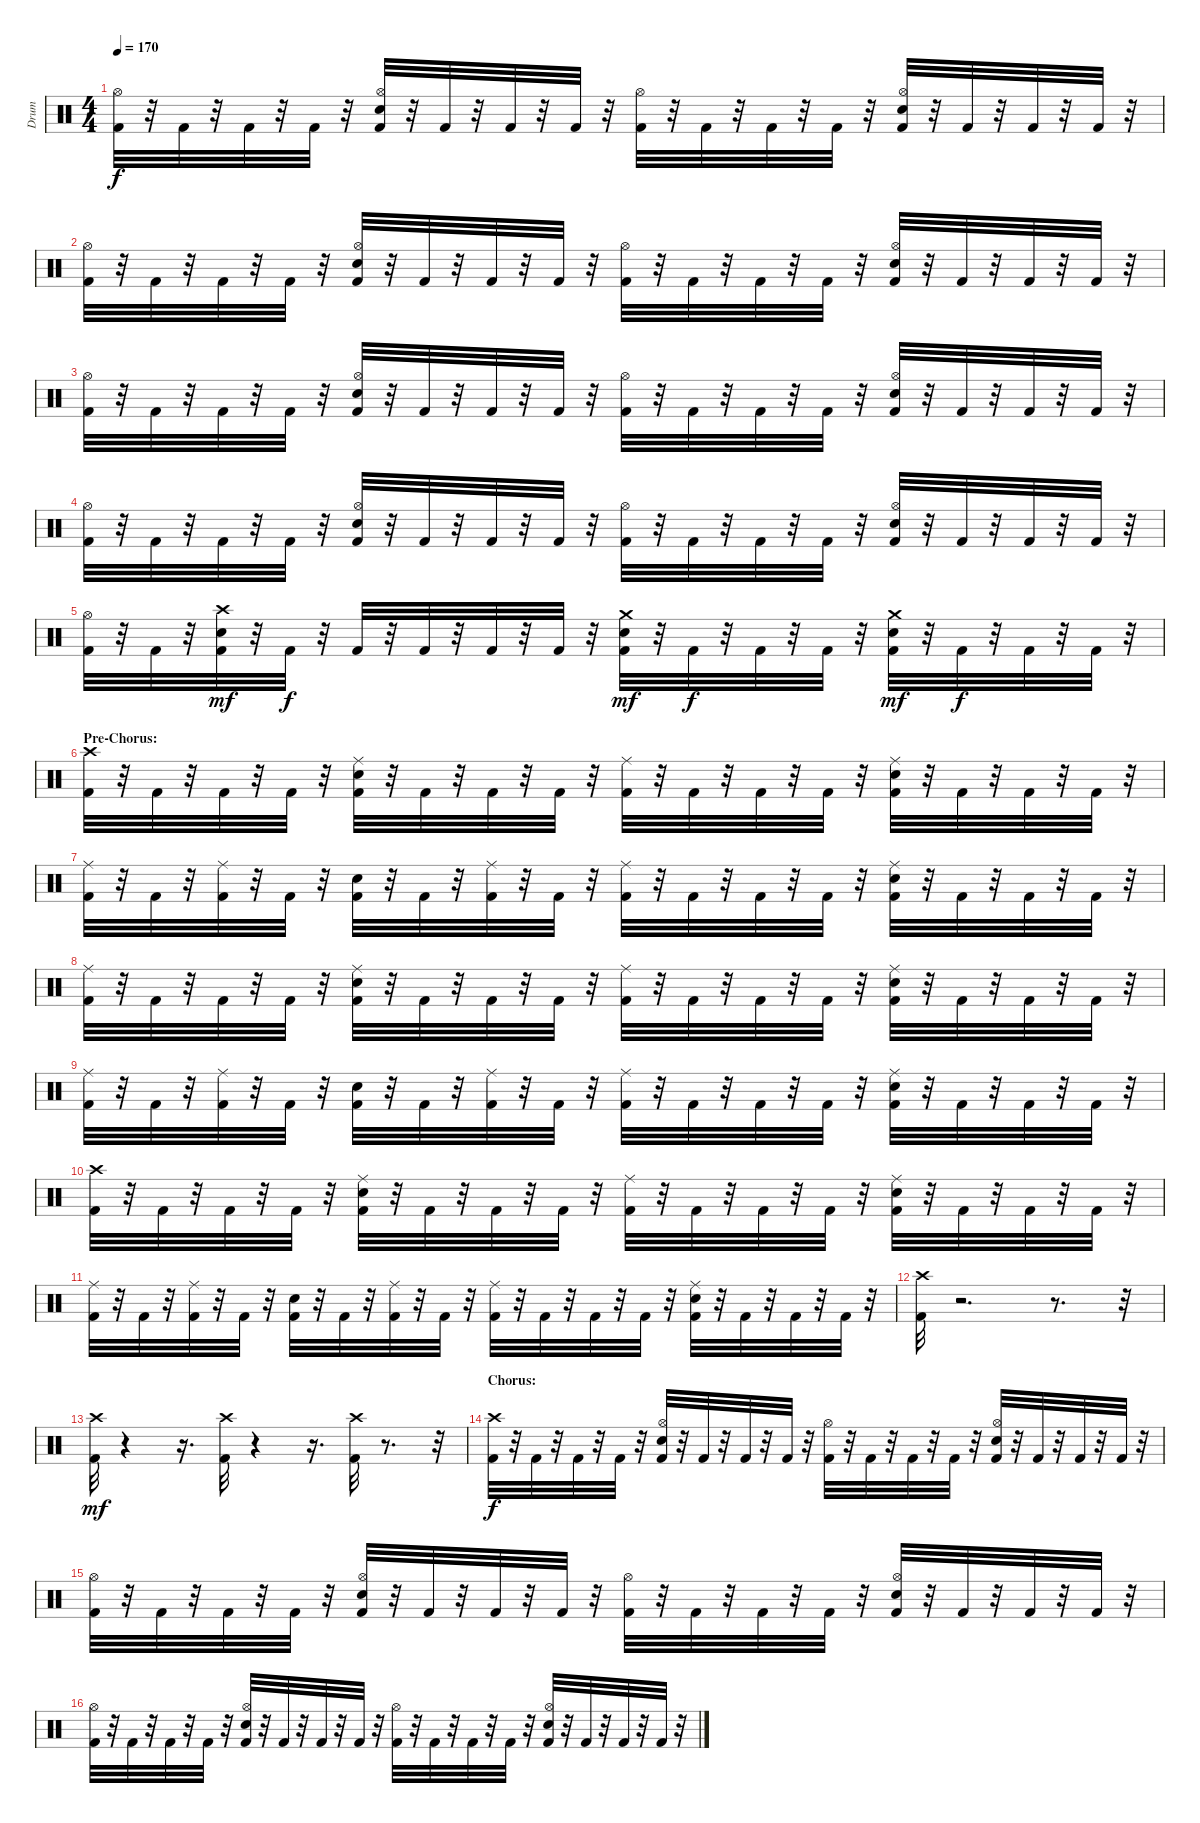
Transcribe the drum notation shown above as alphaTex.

\track ("Drum" "Drum") {instrument percussion}
\staff {score}
\articulation defaults
\ts (4 4)
\tempo 170
\clef neutral
\ks c
("Kick (hit) 2" "Hi-Hat (open)").32{dy f} r.32 "Kick (hit) 2".32 r.32 "Kick (hit) 2".32 r.32 "Kick (hit) 2".32 r.32 ("Kick (hit) 2" "Snare (hit) 2" "Hi-Hat (open)").32 r.32 "Kick (hit) 2".32 r.32 "Kick (hit) 2".32 r.32 "Kick (hit) 2".32 r.32 ("Kick (hit) 2" "Hi-Hat (open)").32 r.32 "Kick (hit) 2".32 r.32 "Kick (hit) 2".32 r.32 "Kick (hit) 2".32 r.32 ("Kick (hit) 2" "Hi-Hat (open)" "Snare (hit) 2").32 r.32 "Kick (hit) 2".32 r.32 "Kick (hit) 2".32 r.32 "Kick (hit) 2".32 r.32 |
("Kick (hit) 2" "Hi-Hat (open)").32 r.32 "Kick (hit) 2".32 r.32 "Kick (hit) 2".32 r.32 "Kick (hit) 2".32 r.32 ("Kick (hit) 2" "Snare (hit) 2" "Hi-Hat (open)").32 r.32 "Kick (hit) 2".32 r.32 "Kick (hit) 2".32 r.32 "Kick (hit) 2".32 r.32 ("Kick (hit) 2" "Hi-Hat (open)").32 r.32 "Kick (hit) 2".32 r.32 "Kick (hit) 2".32 r.32 "Kick (hit) 2".32 r.32 ("Kick (hit) 2" "Snare (hit) 2" "Hi-Hat (open)").32 r.32 "Kick (hit) 2".32 r.32 "Kick (hit) 2".32 r.32 "Kick (hit) 2".32 r.32 |
("Kick (hit) 2" "Hi-Hat (open)").32 r.32 "Kick (hit) 2".32 r.32 "Kick (hit) 2".32 r.32 "Kick (hit) 2".32 r.32 ("Kick (hit) 2" "Snare (hit) 2" "Hi-Hat (open)").32 r.32 "Kick (hit) 2".32 r.32 "Kick (hit) 2".32 r.32 "Kick (hit) 2".32 r.32 ("Kick (hit) 2" "Hi-Hat (open)").32 r.32 "Kick (hit) 2".32 r.32 "Kick (hit) 2".32 r.32 "Kick (hit) 2".32 r.32 ("Kick (hit) 2" "Hi-Hat (open)" "Snare (hit) 2").32 r.32 "Kick (hit) 2".32 r.32 "Kick (hit) 2".32 r.32 "Kick (hit) 2".32 r.32 |
("Kick (hit) 2" "Hi-Hat (open)").32 r.32 "Kick (hit) 2".32 r.32 "Kick (hit) 2".32 r.32 "Kick (hit) 2".32 r.32 ("Kick (hit) 2" "Snare (hit) 2" "Hi-Hat (open)").32 r.32 "Kick (hit) 2".32 r.32 "Kick (hit) 2".32 r.32 "Kick (hit) 2".32 r.32 ("Kick (hit) 2" "Hi-Hat (open)").32 r.32 "Kick (hit) 2".32 r.32 "Kick (hit) 2".32 r.32 "Kick (hit) 2".32 r.32 ("Kick (hit) 2" "Snare (hit) 2" "Hi-Hat (open)").32 r.32 "Kick (hit) 2".32 r.32 "Kick (hit) 2".32 r.32 "Kick (hit) 2".32 r.32 |
("Kick (hit) 2" "Hi-Hat (open)").32 r.32 "Kick (hit) 2".32 r.32 ("Crash high (hit)" "Snare (hit) 2" "Kick (hit) 2").32{dy mf} r.32 "Kick (hit) 2".32{dy f} r.32 "Kick (hit) 2".32 r.32 "Kick (hit) 2".32 r.32 "Kick (hit) 2".32 r.32 "Kick (hit) 2".32 r.32 ("Crash medium (hit)" "Snare (hit) 2" "Kick (hit) 2").32{dy mf} r.32 "Kick (hit) 2".32{dy f} r.32 "Kick (hit) 2".32 r.32 "Kick (hit) 2".32 r.32 ("Crash medium (hit)" "Snare (hit) 2" "Kick (hit) 2").32{dy mf} r.32 "Kick (hit) 2".32{dy f} r.32 "Kick (hit) 2".32 r.32 "Kick (hit) 2".32 r.32 |
\section ("" "Pre-Chorus:")
("Crash high (hit)" "Kick (hit) 2").32 r.32 "Kick (hit) 2".32 r.32 "Kick (hit) 2".32 r.32 "Kick (hit) 2".32 r.32 ("Kick (hit) 2" "Snare (hit) 2" "Ride (middle)").32 r.32 "Kick (hit) 2".32 r.32 "Kick (hit) 2".32 r.32 "Kick (hit) 2".32 r.32 ("Kick (hit) 2" "Ride (middle)").32 r.32 "Kick (hit) 2".32 r.32 "Kick (hit) 2".32 r.32 "Kick (hit) 2".32 r.32 ("Kick (hit) 2" "Snare (hit) 2" "Ride (middle)").32 r.32 "Kick (hit) 2".32 r.32 "Kick (hit) 2".32 r.32 "Kick (hit) 2".32 r.32 |
("Kick (hit) 2" "Ride (middle)").32 r.32 "Kick (hit) 2".32 r.32 ("Kick (hit) 2" "Ride (middle)").32 r.32 "Kick (hit) 2".32 r.32 ("Kick (hit) 2" "Snare (hit) 2").32 r.32 "Kick (hit) 2".32 r.32 ("Kick (hit) 2" "Ride (middle)").32 r.32 "Kick (hit) 2".32 r.32 ("Kick (hit) 2" "Ride (middle)").32 r.32 "Kick (hit) 2".32 r.32 "Kick (hit) 2".32 r.32 "Kick (hit) 2".32 r.32 ("Kick (hit) 2" "Snare (hit) 2" "Ride (middle)").32 r.32 "Kick (hit) 2".32 r.32 "Kick (hit) 2".32 r.32 "Kick (hit) 2".32 r.32 |
("Kick (hit) 2" "Ride (middle)").32 r.32 "Kick (hit) 2".32 r.32 "Kick (hit) 2".32 r.32 "Kick (hit) 2".32 r.32 ("Kick (hit) 2" "Ride (middle)" "Snare (hit) 2").32 r.32 "Kick (hit) 2".32 r.32 "Kick (hit) 2".32 r.32 "Kick (hit) 2".32 r.32 ("Kick (hit) 2" "Ride (middle)").32 r.32 "Kick (hit) 2".32 r.32 "Kick (hit) 2".32 r.32 "Kick (hit) 2".32 r.32 ("Kick (hit) 2" "Ride (middle)" "Snare (hit) 2").32 r.32 "Kick (hit) 2".32 r.32 "Kick (hit) 2".32 r.32 "Kick (hit) 2".32 r.32 |
("Kick (hit) 2" "Ride (middle)").32 r.32 "Kick (hit) 2".32 r.32 ("Kick (hit) 2" "Ride (middle)").32 r.32 "Kick (hit) 2".32 r.32 ("Kick (hit) 2" "Snare (hit) 2").32 r.32 "Kick (hit) 2".32 r.32 ("Kick (hit) 2" "Ride (middle)").32 r.32 "Kick (hit) 2".32 r.32 ("Kick (hit) 2" "Ride (middle)").32 r.32 "Kick (hit) 2".32 r.32 "Kick (hit) 2".32 r.32 "Kick (hit) 2".32 r.32 ("Kick (hit) 2" "Ride (middle)" "Snare (hit) 2").32 r.32 "Kick (hit) 2".32 r.32 "Kick (hit) 2".32 r.32 "Kick (hit) 2".32 r.32 |
("Kick (hit) 2" "Crash high (hit)").32 r.32 "Kick (hit) 2".32 r.32 "Kick (hit) 2".32 r.32 "Kick (hit) 2".32 r.32 ("Kick (hit) 2" "Ride (middle)" "Snare (hit) 2").32 r.32 "Kick (hit) 2".32 r.32 "Kick (hit) 2".32 r.32 "Kick (hit) 2".32 r.32 ("Kick (hit) 2" "Ride (middle)").32 r.32 "Kick (hit) 2".32 r.32 "Kick (hit) 2".32 r.32 "Kick (hit) 2".32 r.32 ("Kick (hit) 2" "Ride (middle)" "Snare (hit) 2").32 r.32 "Kick (hit) 2".32 r.32 "Kick (hit) 2".32 r.32 "Kick (hit) 2".32 r.32 |
("Kick (hit) 2" "Ride (middle)").32 r.32 "Kick (hit) 2".32 r.32 ("Kick (hit) 2" "Ride (middle)").32 r.32 "Kick (hit) 2".32 r.32 ("Kick (hit) 2" "Snare (hit) 2").32 r.32 "Kick (hit) 2".32 r.32 ("Kick (hit) 2" "Ride (middle)").32 r.32 "Kick (hit) 2".32 r.32 ("Kick (hit) 2" "Ride (middle)").32 r.32 "Kick (hit) 2".32 r.32 "Kick (hit) 2".32 r.32 "Kick (hit) 2".32 r.32 ("Kick (hit) 2" "Ride (middle)" "Snare (hit) 2").32 r.32 "Kick (hit) 2".32 r.32 "Kick (hit) 2".32 r.32 "Kick (hit) 2".32 r.32 |
("Crash high (hit)" "Kick (hit) 2").32 r.2{d} r.8{d} r.32 |
("Crash high (hit)" "Kick (hit) 2").32{dy mf} r.4 r.16{d} ("Crash high (hit)" "Kick (hit) 2").32 r.4 r.16{d} ("Crash high (hit)" "Kick (hit) 2").32 r.8{d} r.32 |
\section ("" "Chorus:")
("Kick (hit) 2" "Crash high (hit)").32{dy f} r.32 "Kick (hit) 2".32 r.32 "Kick (hit) 2".32 r.32 "Kick (hit) 2".32 r.32 ("Hi-Hat (open)" "Snare (hit) 2" "Kick (hit) 2").32 r.32 "Kick (hit) 2".32 r.32 "Kick (hit) 2".32 r.32 "Kick (hit) 2".32 r.32 ("Hi-Hat (open)" "Kick (hit) 2").32 r.32 "Kick (hit) 2".32 r.32 "Kick (hit) 2".32 r.32 "Kick (hit) 2".32 r.32 ("Kick (hit) 2" "Snare (hit) 2" "Hi-Hat (open)").32 r.32 "Kick (hit) 2".32 r.32 "Kick (hit) 2".32 r.32 "Kick (hit) 2".32 r.32 |
("Kick (hit) 2" "Hi-Hat (open)").32 r.32 "Kick (hit) 2".32 r.32 "Kick (hit) 2".32 r.32 "Kick (hit) 2".32 r.32 ("Kick (hit) 2" "Hi-Hat (open)" "Snare (hit) 2").32 r.32 "Kick (hit) 2".32 r.32 "Kick (hit) 2".32 r.32 "Kick (hit) 2".32 r.32 ("Kick (hit) 2" "Hi-Hat (open)").32 r.32 "Kick (hit) 2".32 r.32 "Kick (hit) 2".32 r.32 "Kick (hit) 2".32 r.32 ("Kick (hit) 2" "Hi-Hat (open)" "Snare (hit) 2").32 r.32 "Kick (hit) 2".32 r.32 "Kick (hit) 2".32 r.32 "Kick (hit) 2".32 r.32 |
("Kick (hit) 2" "Hi-Hat (open)").32 r.32 "Kick (hit) 2".32 r.32 "Kick (hit) 2".32 r.32 "Kick (hit) 2".32 r.32 ("Kick (hit) 2" "Hi-Hat (open)" "Snare (hit) 2").32 r.32 "Kick (hit) 2".32 r.32 "Kick (hit) 2".32 r.32 "Kick (hit) 2".32 r.32 ("Kick (hit) 2" "Hi-Hat (open)").32 r.32 "Kick (hit) 2".32 r.32 "Kick (hit) 2".32 r.32 "Kick (hit) 2".32 r.32 ("Kick (hit) 2" "Hi-Hat (open)" "Snare (hit) 2").32 r.32 "Kick (hit) 2".32 r.32 "Kick (hit) 2".32 r.32 "Kick (hit) 2".32 r.32
